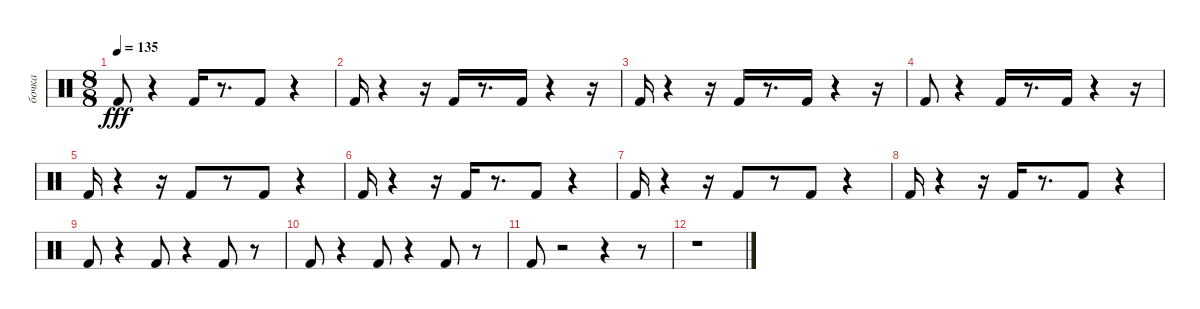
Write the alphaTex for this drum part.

\track ("бочка" "бочка") {instrument percussion}
\staff {score}
\articulation defaults
\ts (8 8)
\tempo 135
\clef neutral
\ks c "Kick (hit) 2".8{dy fff}
r.4 "Kick (hit) 2".16 r.8{d} "Kick (hit) 2".8 r.4 |
"Kick (hit) 2".16 r.4 r.16 "Kick (hit) 2".16 r.8{d} "Kick (hit) 2".16 r.4 r.16 |
"Kick (hit) 2".16 r.4 r.16 "Kick (hit) 2".16 r.8{d} "Kick (hit) 2".16 r.4 r.16 |
"Kick (hit) 2".8 r.4 "Kick (hit) 2".16 r.8{d} "Kick (hit) 2".16 r.4 r.16 |
"Kick (hit) 2".16 r.4 r.16 "Kick (hit) 2".8 r.8 "Kick (hit) 2".8 r.4 |
"Kick (hit) 2".16 r.4 r.16 "Kick (hit) 2".16 r.8{d} "Kick (hit) 2".8 r.4 |
"Kick (hit) 2".16 r.4 r.16 "Kick (hit) 2".8 r.8 "Kick (hit) 2".8 r.4 |
"Kick (hit) 2".16 r.4 r.16 "Kick (hit) 2".16 r.8{d} "Kick (hit) 2".8 r.4 |
"Kick (hit) 2".8 r.4 "Kick (hit) 2".8 r.4 "Kick (hit) 2".8 r.8 |
"Kick (hit) 2".8 r.4 "Kick (hit) 2".8 r.4 "Kick (hit) 2".8 r.8 |
"Kick (hit) 2".8 r.2 r.4 r.8 |
r.1
